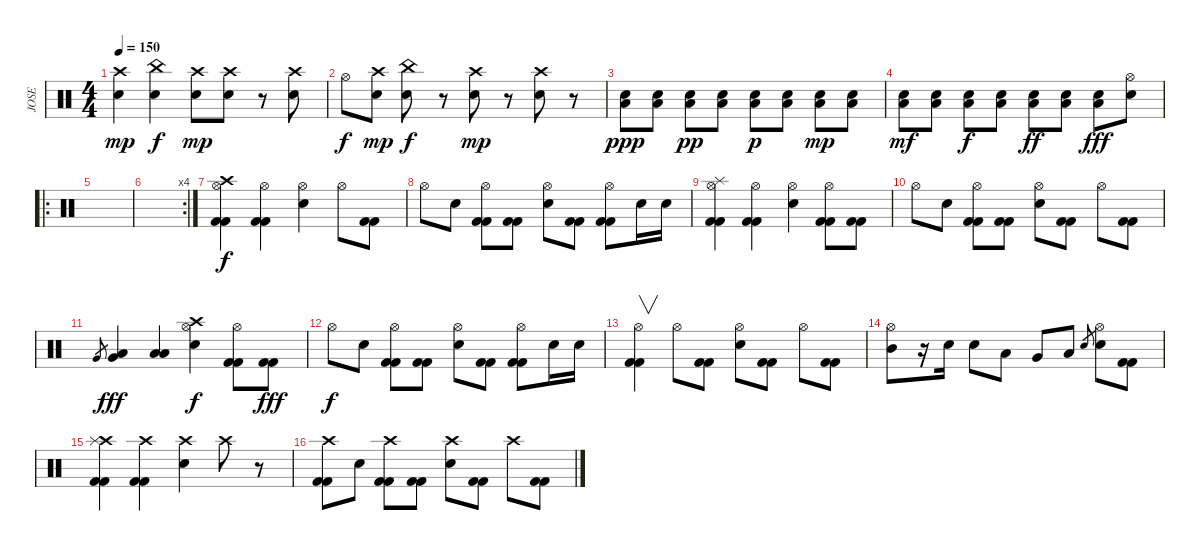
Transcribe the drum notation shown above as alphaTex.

\track ("JOSE" "JOSE") {instrument percussion}
\staff {score}
\articulation defaults
\ts (4 4)
\tempo 150
\clef neutral
\ks c
("Crash high (hit)" "Electric Snare (hit)").4{dy mp} ("China (hit)" "Electric Snare (hit)").4{dy f} ("Crash high (hit)" "Electric Snare (hit)").8{dy mp} ("Crash high (hit)" "Electric Snare (hit)").8 r.8 ("Crash high (hit)" "Electric Snare (hit)").8 |
"Hi-Hat (open)".8{dy f} ("Crash high (hit)" "Electric Snare (hit)").8{dy mp} ("China (hit)" "Electric Snare (hit)").8{dy f} r.8 ("Crash high (hit)" "Electric Snare (hit)").8{dy mp} r.8 ("Crash high (hit)" "Electric Snare (hit)").8 r.8 |
("Electric Snare (hit)" "Low Floor Tom (hit)").8{dy ppp} ("Electric Snare (hit)" "Low Floor Tom (hit)").8 ("Electric Snare (hit)" "Low Floor Tom (hit)").8{dy pp} ("Electric Snare (hit)" "Low Floor Tom (hit)").8 ("Electric Snare (hit)" "Low Floor Tom (hit)").8{dy p} ("Electric Snare (hit)" "Low Floor Tom (hit)").8 ("Electric Snare (hit)" "Low Floor Tom (hit)").8{dy mp} ("Electric Snare (hit)" "Low Floor Tom (hit)").8 |
("Electric Snare (hit)" "Low Floor Tom (hit)").8{dy mf} ("Electric Snare (hit)" "Low Floor Tom (hit)").8 ("Electric Snare (hit)" "Low Floor Tom (hit)").8{dy f} ("Electric Snare (hit)" "Low Floor Tom (hit)").8 ("Electric Snare (hit)" "Low Floor Tom (hit)").8{dy ff} ("Electric Snare (hit)" "Low Floor Tom (hit)").8 ("Electric Snare (hit)" "Low Floor Tom (hit)").8{dy fff} ("Hi-Hat (open)" "Electric Snare (hit)").8 |
\ro
|
\rc 4
|
("Hi-Hat (open)" "Crash high (hit)" "Kick (hit) 2" "Kick (hit) 2").4{dy f} ("Hi-Hat (open)" "Kick (hit) 2" "Kick (hit) 2").4 ("Hi-Hat (open)" "Electric Snare (hit)").4 "Hi-Hat (open)".8 ("Kick (hit) 2" "Kick (hit) 2").8 |
"Hi-Hat (open)".8 "Electric Snare (hit)".8 ("Hi-Hat (open)" "Kick (hit) 2" "Kick (hit) 2").8 ("Kick (hit) 2" "Kick (hit) 2").8 ("Hi-Hat (open)" "Electric Snare (hit)").8 ("Kick (hit) 2" "Kick (hit) 2").8 ("Hi-Hat (open)" "Kick (hit) 2" "Kick (hit) 2").8 "Electric Snare (hit)".16 "Electric Snare (hit)".16 |
("Hi-Hat (open)" "Splash (hit)" "Kick (hit) 2" "Kick (hit) 2").4 ("Hi-Hat (open)" "Kick (hit) 2" "Kick (hit) 2").4 ("Hi-Hat (open)" "Electric Snare (hit)").4 ("Hi-Hat (open)" "Kick (hit) 2" "Kick (hit) 2").8 ("Kick (hit) 2" "Kick (hit) 2").8 |
"Hi-Hat (open)".8 "Electric Snare (hit)".8 ("Hi-Hat (open)" "Kick (hit) 2" "Kick (hit) 2").8 ("Kick (hit) 2" "Kick (hit) 2").8 ("Hi-Hat (open)" "Electric Snare (hit)").8 ("Kick (hit) 2" "Kick (hit) 2").8 "Hi-Hat (open)".8 ("Kick (hit) 2" "Kick (hit) 2").8 |
"Very Low Tom (hit)".8{gr} ("Low Tom (hit)" "Very Low Tom (hit)").4{dy fff} ("Low Tom (hit)" "Low Floor Tom (hit)").4 ("Hi-Hat (open)" "Crash high (hit)" "Electric Snare (hit)").4{dy f} ("Hi-Hat (open)" "Kick (hit) 2" "Kick (hit) 2").8 ("Kick (hit) 2" "Kick (hit) 2").8{dy fff} |
"Hi-Hat (open)".8{dy f} "Electric Snare (hit)".8 ("Hi-Hat (open)" "Kick (hit) 2" "Kick (hit) 2").8 ("Kick (hit) 2" "Kick (hit) 2").8 ("Hi-Hat (open)" "Electric Snare (hit)").8 ("Kick (hit) 2" "Kick (hit) 2").8 ("Hi-Hat (open)" "Kick (hit) 2" "Kick (hit) 2").8 "Electric Snare (hit)".16 "Electric Snare (hit)".16 |
("Hi-Hat (open)" "Kick (hit) 2" "Kick (hit) 2").4{v} "Hi-Hat (open)".8 ("Kick (hit) 2" "Kick (hit) 2").8 ("Hi-Hat (open)" "Electric Snare (hit)").8 ("Kick (hit) 2" "Kick (hit) 2").8 "Hi-Hat (open)".8 ("Kick (hit) 2" "Kick (hit) 2").8 |
("Hi-Hat (open)" "Mid Tom (hit)").8 r.16 "Electric Snare (hit)".16 "Electric Snare (hit)".8 "Low Tom (hit)".8 "Very Low Tom (hit)".8 "Low Floor Tom (hit)".8 "Electric Snare (hit)".8{gr} ("Hi-Hat (open)" "Electric Snare (hit)").8 ("Kick (hit) 2" "Kick (hit) 2").8 |
("Crash high (hit)" "Splash (hit)" "Kick (hit) 2" "Kick (hit) 2").4 ("Crash high (hit)" "Kick (hit) 2" "Kick (hit) 2").4 ("Crash high (hit)" "Electric Snare (hit)").4 "Crash high (hit)".8 r.8 |
("Crash high (hit)" "Kick (hit) 2" "Kick (hit) 2").8 "Electric Snare (hit)".8 ("Crash high (hit)" "Kick (hit) 2" "Kick (hit) 2").8 ("Kick (hit) 2" "Kick (hit) 2").8 ("Crash high (hit)" "Electric Snare (hit)").8 ("Kick (hit) 2" "Kick (hit) 2").8 "Crash high (hit)".8 ("Kick (hit) 2" "Kick (hit) 2").8
